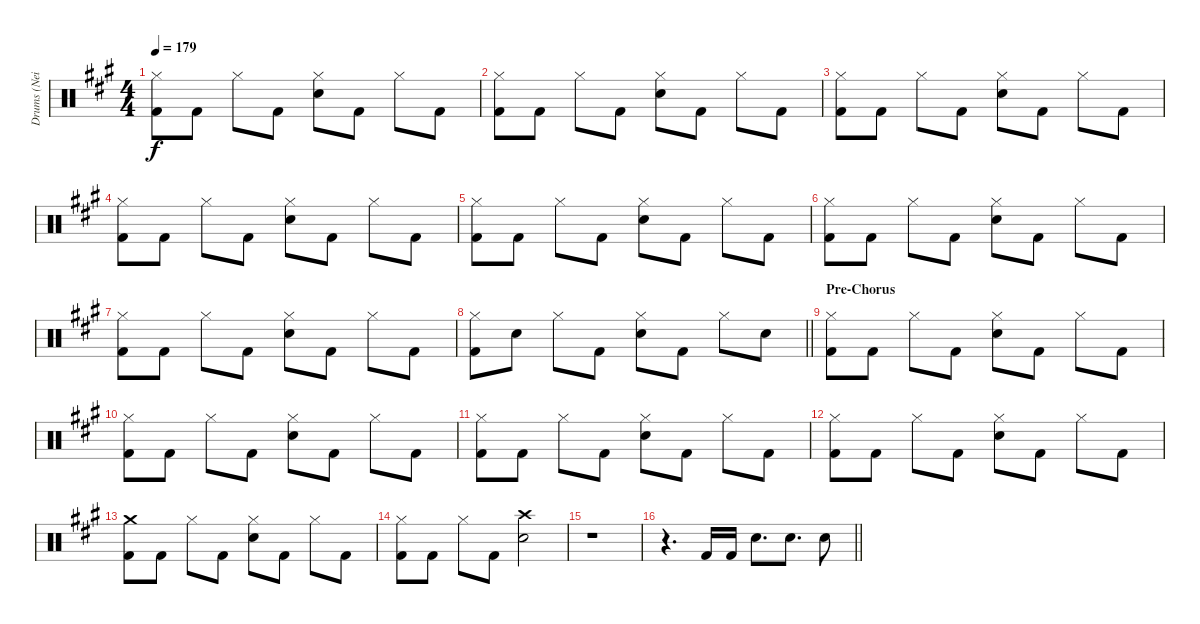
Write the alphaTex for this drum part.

\track ("Drums (Neil Sanderson)" "Drums (Nei") {instrument percussion}
\staff {score}
\articulation defaults
\ts (4 4)
\tempo 179
\clef neutral
\ks f#minor
("Hi-Hat (closed)" "Kick (hit) 2").8{dy f} "Kick (hit) 2".8 "Hi-Hat (closed)".8 "Kick (hit) 2".8 ("Hi-Hat (closed)" "Electric Snare (hit)").8 "Kick (hit) 2".8 "Hi-Hat (closed)".8 "Kick (hit) 2".8 |
("Hi-Hat (closed)" "Kick (hit) 2").8 "Kick (hit) 2".8 "Hi-Hat (closed)".8 "Kick (hit) 2".8 ("Hi-Hat (closed)" "Electric Snare (hit)").8 "Kick (hit) 2".8 "Hi-Hat (closed)".8 "Kick (hit) 2".8 |
("Hi-Hat (closed)" "Kick (hit) 2").8 "Kick (hit) 2".8 "Hi-Hat (closed)".8 "Kick (hit) 2".8 ("Hi-Hat (closed)" "Electric Snare (hit)").8 "Kick (hit) 2".8 "Hi-Hat (closed)".8 "Kick (hit) 2".8 |
("Hi-Hat (closed)" "Kick (hit) 2").8 "Kick (hit) 2".8 "Hi-Hat (closed)".8 "Kick (hit) 2".8 ("Hi-Hat (closed)" "Electric Snare (hit)").8 "Kick (hit) 2".8 "Hi-Hat (closed)".8 "Kick (hit) 2".8 |
("Hi-Hat (closed)" "Kick (hit) 2").8 "Kick (hit) 2".8 "Hi-Hat (closed)".8 "Kick (hit) 2".8 ("Hi-Hat (closed)" "Electric Snare (hit)").8 "Kick (hit) 2".8 "Hi-Hat (closed)".8 "Kick (hit) 2".8 |
("Hi-Hat (closed)" "Kick (hit) 2").8 "Kick (hit) 2".8 "Hi-Hat (closed)".8 "Kick (hit) 2".8 ("Hi-Hat (closed)" "Electric Snare (hit)").8 "Kick (hit) 2".8 "Hi-Hat (closed)".8 "Kick (hit) 2".8 |
("Hi-Hat (closed)" "Kick (hit) 2").8 "Kick (hit) 2".8 "Hi-Hat (closed)".8 "Kick (hit) 2".8 ("Hi-Hat (closed)" "Electric Snare (hit)").8 "Kick (hit) 2".8 "Hi-Hat (closed)".8 "Kick (hit) 2".8 |
\barLineRight lightlight
("Hi-Hat (closed)" "Kick (hit) 2").8 "Electric Snare (hit)".8 "Hi-Hat (closed)".8 "Kick (hit) 2".8 ("Hi-Hat (closed)" "Electric Snare (hit)").8 "Kick (hit) 2".8 "Hi-Hat (closed)".8 "Electric Snare (hit)".8 |
\section ("" "Pre-Chorus")
("Hi-Hat (closed)" "Kick (hit) 2").8 "Kick (hit) 2".8 "Hi-Hat (closed)".8 "Kick (hit) 2".8 ("Hi-Hat (closed)" "Electric Snare (hit)").8 "Kick (hit) 2".8 "Hi-Hat (closed)".8 "Kick (hit) 2".8 |
("Hi-Hat (closed)" "Kick (hit) 2").8 "Kick (hit) 2".8 "Hi-Hat (closed)".8 "Kick (hit) 2".8 ("Hi-Hat (closed)" "Electric Snare (hit)").8 "Kick (hit) 2".8 "Hi-Hat (closed)".8 "Kick (hit) 2".8 |
("Hi-Hat (closed)" "Kick (hit) 2").8 "Kick (hit) 2".8 "Hi-Hat (closed)".8 "Kick (hit) 2".8 ("Hi-Hat (closed)" "Electric Snare (hit)").8 "Kick (hit) 2".8 "Hi-Hat (closed)".8 "Kick (hit) 2".8 |
("Hi-Hat (closed)" "Kick (hit) 2").8 "Kick (hit) 2".8 "Hi-Hat (closed)".8 "Kick (hit) 2".8 ("Hi-Hat (closed)" "Electric Snare (hit)").8 "Kick (hit) 2".8 "Hi-Hat (closed)".8 "Kick (hit) 2".8 |
("Crash medium (hit)" "Kick (hit) 2").8 "Kick (hit) 2".8 "Hi-Hat (closed)".8 "Kick (hit) 2".8 ("Hi-Hat (closed)" "Electric Snare (hit)").8 "Kick (hit) 2".8 "Hi-Hat (closed)".8 "Kick (hit) 2".8 |
("Hi-Hat (closed)" "Kick (hit) 2").8 "Kick (hit) 2".8 "Hi-Hat (closed)".8 "Kick (hit) 2".8 ("Crash high (hit)" "Electric Snare (hit)").2 |
r.1 |
\barLineRight lightlight
r.4{d} "Kick (hit) 2".16 "Kick (hit) 2".16 "Electric Snare (hit)".8{d} "Electric Snare (hit)".8{d} "Electric Snare (hit)".8
